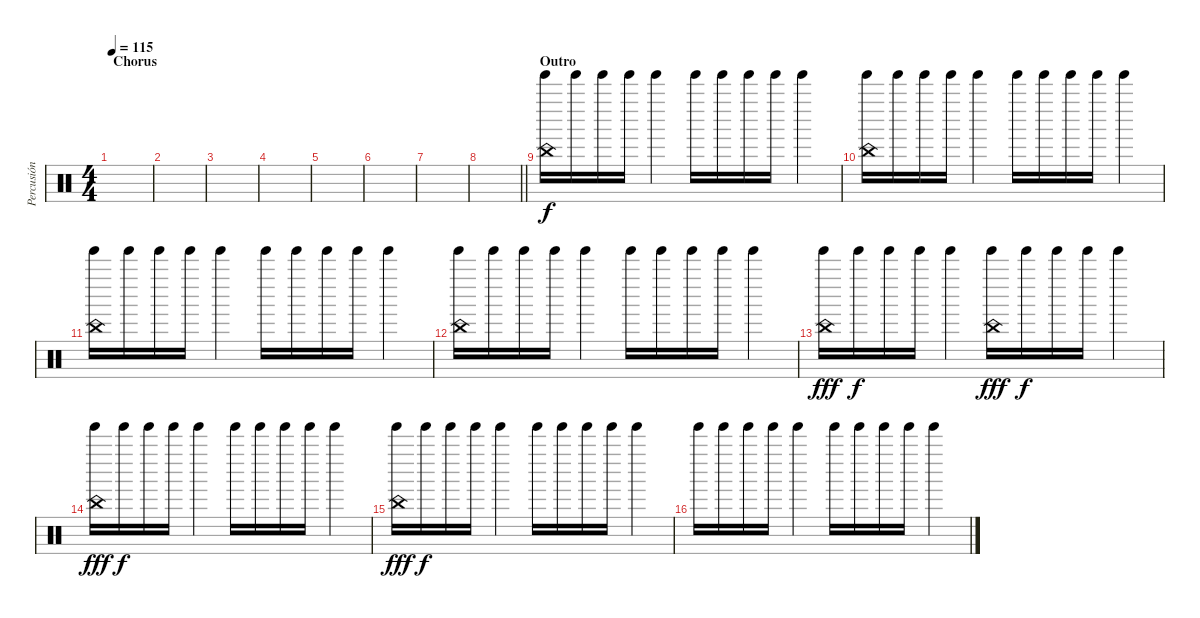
\track ("Percusión" "Percusión") {instrument percussion}
\staff {score}
\articulation defaults
\ts (4 4)
\section ("" "Chorus")
\tempo 115
\clef neutral
\ks c
|
|
|
|
|
|
|
\barLineRight lightlight
|
\section ("" "Outro")
("China (hit)" "Tinkle Bell (hit)").16{dy f} "Tinkle Bell (hit)".16 "Tinkle Bell (hit)".16 "Tinkle Bell (hit)".16 "Tinkle Bell (hit)".4 "Tinkle Bell (hit)".16 "Tinkle Bell (hit)".16 "Tinkle Bell (hit)".16 "Tinkle Bell (hit)".16 "Tinkle Bell (hit)".4 |
("China (hit)" "Tinkle Bell (hit)").16 "Tinkle Bell (hit)".16 "Tinkle Bell (hit)".16 "Tinkle Bell (hit)".16 "Tinkle Bell (hit)".4 "Tinkle Bell (hit)".16 "Tinkle Bell (hit)".16 "Tinkle Bell (hit)".16 "Tinkle Bell (hit)".16 "Tinkle Bell (hit)".4 |
("China (hit)" "Tinkle Bell (hit)").16 "Tinkle Bell (hit)".16 "Tinkle Bell (hit)".16 "Tinkle Bell (hit)".16 "Tinkle Bell (hit)".4 "Tinkle Bell (hit)".16 "Tinkle Bell (hit)".16 "Tinkle Bell (hit)".16 "Tinkle Bell (hit)".16 "Tinkle Bell (hit)".4 |
("China (hit)" "Tinkle Bell (hit)").16 "Tinkle Bell (hit)".16 "Tinkle Bell (hit)".16 "Tinkle Bell (hit)".16 "Tinkle Bell (hit)".4 "Tinkle Bell (hit)".16 "Tinkle Bell (hit)".16 "Tinkle Bell (hit)".16 "Tinkle Bell (hit)".16 "Tinkle Bell (hit)".4 |
("China (hit)" "Tinkle Bell (hit)").16{dy fff} "Tinkle Bell (hit)".16{dy f} "Tinkle Bell (hit)".16 "Tinkle Bell (hit)".16 "Tinkle Bell (hit)".4 ("China (hit)" "Tinkle Bell (hit)").16{dy fff} "Tinkle Bell (hit)".16{dy f} "Tinkle Bell (hit)".16 "Tinkle Bell (hit)".16 "Tinkle Bell (hit)".4 |
("China (hit)" "Tinkle Bell (hit)").16{dy fff} "Tinkle Bell (hit)".16{dy f} "Tinkle Bell (hit)".16 "Tinkle Bell (hit)".16 "Tinkle Bell (hit)".4 "Tinkle Bell (hit)".16 "Tinkle Bell (hit)".16 "Tinkle Bell (hit)".16 "Tinkle Bell (hit)".16 "Tinkle Bell (hit)".4 |
("China (hit)" "Tinkle Bell (hit)").16{dy fff} "Tinkle Bell (hit)".16{dy f} "Tinkle Bell (hit)".16 "Tinkle Bell (hit)".16 "Tinkle Bell (hit)".4 "Tinkle Bell (hit)".16 "Tinkle Bell (hit)".16 "Tinkle Bell (hit)".16 "Tinkle Bell (hit)".16 "Tinkle Bell (hit)".4 |
"Tinkle Bell (hit)".16 "Tinkle Bell (hit)".16 "Tinkle Bell (hit)".16 "Tinkle Bell (hit)".16 "Tinkle Bell (hit)".4 "Tinkle Bell (hit)".16 "Tinkle Bell (hit)".16 "Tinkle Bell (hit)".16 "Tinkle Bell (hit)".16 "Tinkle Bell (hit)".4
